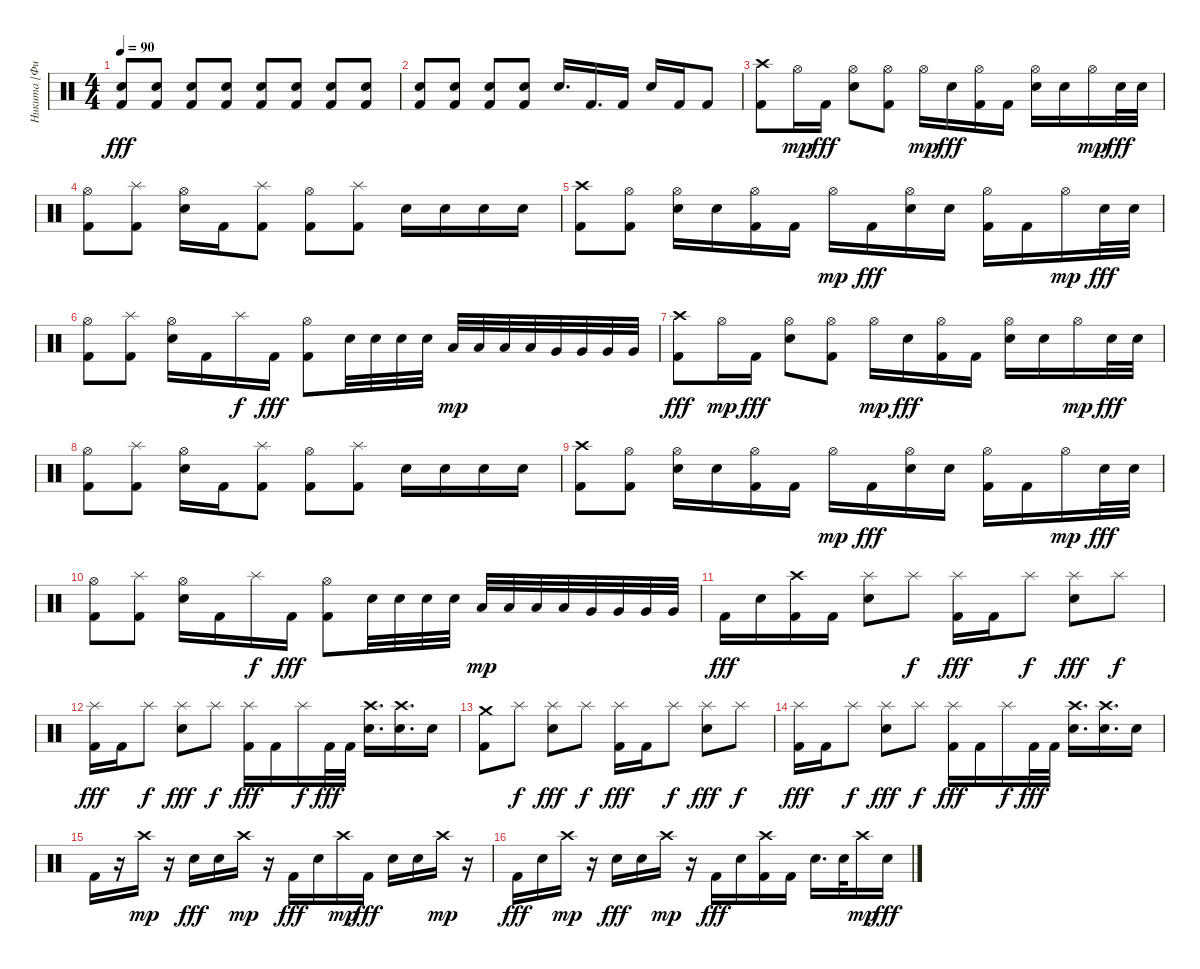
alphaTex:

\track ("Никита [Фил]" "Никита [Фи") {instrument percussion}
\staff {score}
\articulation defaults
\ts (4 4)
\tempo 90
\clef neutral
\ks c
("Electric Snare (hit)" "Kick (hit) 2").8{dy fff} ("Electric Snare (hit)" "Kick (hit) 2").8 ("Electric Snare (hit)" "Kick (hit) 2").8 ("Electric Snare (hit)" "Kick (hit) 2").8 ("Electric Snare (hit)" "Kick (hit) 2").8 ("Electric Snare (hit)" "Kick (hit) 2").8 ("Electric Snare (hit)" "Kick (hit) 2").8 ("Electric Snare (hit)" "Kick (hit) 2").8 |
("Electric Snare (hit)" "Kick (hit) 2").8 ("Electric Snare (hit)" "Kick (hit) 2").8 ("Electric Snare (hit)" "Kick (hit) 2").8 ("Electric Snare (hit)" "Kick (hit) 2").8 "Electric Snare (hit)".16{d} "Kick (hit) 2".16{d} "Kick (hit) 2".16 "Electric Snare (hit)".16 "Kick (hit) 2".16 "Kick (hit) 2".8 |
("Crash high (hit)" "Kick (hit) 2").8 "Hi-Hat (open)".16{dy mp} "Kick (hit) 2".16{dy fff} ("Hi-Hat (open)" "Electric Snare (hit)").8 ("Hi-Hat (open)" "Kick (hit) 2").8 "Hi-Hat (open)".16{dy mp} "Electric Snare (hit)".16{dy fff} ("Hi-Hat (open)" "Kick (hit) 2").16 "Kick (hit) 2".16 ("Hi-Hat (open)" "Electric Snare (hit)").16 "Electric Snare (hit)".16 "Hi-Hat (open)".16{dy mp} "Electric Snare (hit)".32{dy fff} "Electric Snare (hit)".32 |
("Hi-Hat (open)" "Kick (hit) 2").8 ("Splash (hit)" "Kick (hit) 2").8 ("Hi-Hat (open)" "Electric Snare (hit)").16 "Kick (hit) 2".16 ("Splash (hit)" "Kick (hit) 2").8 ("Hi-Hat (open)" "Kick (hit) 2").8 ("Splash (hit)" "Kick (hit) 2").8 "Electric Snare (hit)".16 "Electric Snare (hit)".16 "Electric Snare (hit)".16 "Electric Snare (hit)".16 |
("Crash high (hit)" "Kick (hit) 2").8 ("Hi-Hat (open)" "Kick (hit) 2").8 ("Hi-Hat (open)" "Electric Snare (hit)").16 "Electric Snare (hit)".16 ("Hi-Hat (open)" "Kick (hit) 2").16 "Kick (hit) 2".16 "Hi-Hat (open)".16{dy mp} "Kick (hit) 2".16{dy fff} ("Hi-Hat (open)" "Electric Snare (hit)").16 "Electric Snare (hit)".16 ("Hi-Hat (open)" "Kick (hit) 2").16 "Kick (hit) 2".16 "Hi-Hat (open)".16{dy mp} "Electric Snare (hit)".32{dy fff} "Electric Snare (hit)".32 |
("Hi-Hat (open)" "Kick (hit) 2").8 ("Splash (hit)" "Kick (hit) 2").8 ("Hi-Hat (open)" "Electric Snare (hit)").16 "Kick (hit) 2".16 "Splash (hit)".16{dy f} "Kick (hit) 2".16{dy fff} ("Hi-Hat (open)" "Kick (hit) 2").8 "Electric Snare (hit)".32 "Electric Snare (hit)".32 "Electric Snare (hit)".32 "Electric Snare (hit)".32 "Low Tom (hit)".32{dy mp} "Low Tom (hit)".32 "Low Tom (hit)".32 "Low Tom (hit)".32 "Very Low Tom (hit)".32 "Very Low Tom (hit)".32 "Very Low Tom (hit)".32 "Very Low Tom (hit)".32 |
("Crash high (hit)" "Kick (hit) 2").8{dy fff} "Hi-Hat (open)".16{dy mp} "Kick (hit) 2".16{dy fff} ("Hi-Hat (open)" "Electric Snare (hit)").8 ("Hi-Hat (open)" "Kick (hit) 2").8 "Hi-Hat (open)".16{dy mp} "Electric Snare (hit)".16{dy fff} ("Hi-Hat (open)" "Kick (hit) 2").16 "Kick (hit) 2".16 ("Hi-Hat (open)" "Electric Snare (hit)").16 "Electric Snare (hit)".16 "Hi-Hat (open)".16{dy mp} "Electric Snare (hit)".32{dy fff} "Electric Snare (hit)".32 |
("Hi-Hat (open)" "Kick (hit) 2").8 ("Splash (hit)" "Kick (hit) 2").8 ("Hi-Hat (open)" "Electric Snare (hit)").16 "Kick (hit) 2".16 ("Splash (hit)" "Kick (hit) 2").8 ("Hi-Hat (open)" "Kick (hit) 2").8 ("Splash (hit)" "Kick (hit) 2").8 "Electric Snare (hit)".16 "Electric Snare (hit)".16 "Electric Snare (hit)".16 "Electric Snare (hit)".16 |
("Crash high (hit)" "Kick (hit) 2").8 ("Hi-Hat (open)" "Kick (hit) 2").8 ("Hi-Hat (open)" "Electric Snare (hit)").16 "Electric Snare (hit)".16 ("Hi-Hat (open)" "Kick (hit) 2").16 "Kick (hit) 2".16 "Hi-Hat (open)".16{dy mp} "Kick (hit) 2".16{dy fff} ("Hi-Hat (open)" "Electric Snare (hit)").16 "Electric Snare (hit)".16 ("Hi-Hat (open)" "Kick (hit) 2").16 "Kick (hit) 2".16 "Hi-Hat (open)".16{dy mp} "Electric Snare (hit)".32{dy fff} "Electric Snare (hit)".32 |
("Hi-Hat (open)" "Kick (hit) 2").8 ("Splash (hit)" "Kick (hit) 2").8 ("Hi-Hat (open)" "Electric Snare (hit)").16 "Kick (hit) 2".16 "Splash (hit)".16{dy f} "Kick (hit) 2".16{dy fff} ("Hi-Hat (open)" "Kick (hit) 2").8 "Electric Snare (hit)".32 "Electric Snare (hit)".32 "Electric Snare (hit)".32 "Electric Snare (hit)".32 "Low Tom (hit)".32{dy mp} "Low Tom (hit)".32 "Low Tom (hit)".32 "Low Tom (hit)".32 "Very Low Tom (hit)".32 "Very Low Tom (hit)".32 "Very Low Tom (hit)".32 "Very Low Tom (hit)".32 |
"Kick (hit) 2".16{dy fff} "Electric Snare (hit)".16 ("Crash high (hit)" "Kick (hit) 2").16 "Kick (hit) 2".16 ("Splash (hit)" "Electric Snare (hit)").8 "Splash (hit)".8{dy f} ("Splash (hit)" "Kick (hit) 2").16{dy fff} "Kick (hit) 2".16 "Splash (hit)".8{dy f} ("Splash (hit)" "Electric Snare (hit)").8{dy fff} "Splash (hit)".8{dy f} |
("Splash (hit)" "Kick (hit) 2").16{dy fff} "Kick (hit) 2".16 "Splash (hit)".8{dy f} ("Splash (hit)" "Electric Snare (hit)").8{dy fff} "Splash (hit)".8{dy f} ("Splash (hit)" "Kick (hit) 2").16{dy fff} "Kick (hit) 2".16 "Splash (hit)".16{dy f} "Kick (hit) 2".32{dy fff} "Kick (hit) 2".32 ("Crash high (hit)" "Electric Snare (hit)").16{d} ("Crash high (hit)" "Electric Snare (hit)").16{d} "Electric Snare (hit)".16 |
("Crash medium (hit)" "Kick (hit) 2").8 "Splash (hit)".8{dy f} ("Splash (hit)" "Electric Snare (hit)").8{dy fff} "Splash (hit)".8{dy f} ("Splash (hit)" "Kick (hit) 2").16{dy fff} "Kick (hit) 2".16 "Splash (hit)".8{dy f} ("Splash (hit)" "Electric Snare (hit)").8{dy fff} "Splash (hit)".8{dy f} |
("Splash (hit)" "Kick (hit) 2").16{dy fff} "Kick (hit) 2".16 "Splash (hit)".8{dy f} ("Splash (hit)" "Electric Snare (hit)").8{dy fff} "Splash (hit)".8{dy f} ("Splash (hit)" "Kick (hit) 2").16{dy fff} "Kick (hit) 2".16 "Splash (hit)".16{dy f} "Kick (hit) 2".32{dy fff} "Kick (hit) 2".32 ("Crash high (hit)" "Electric Snare (hit)").16{d} ("Crash high (hit)" "Electric Snare (hit)").16{d} "Electric Snare (hit)".16 |
"Kick (hit) 2".16 r.16 "Crash high (hit)".16{dy mp} r.16 "Electric Snare (hit)".16{dy fff} "Electric Snare (hit)".16 "Crash high (hit)".16{dy mp} r.16 "Kick (hit) 2".16{dy fff} "Electric Snare (hit)".16 "Crash high (hit)".16{dy mp} "Kick (hit) 2".16{dy fff} "Electric Snare (hit)".16 "Electric Snare (hit)".16 "Crash high (hit)".16{dy mp} r.16 |
"Kick (hit) 2".16{dy fff} "Electric Snare (hit)".16 "Crash high (hit)".16{dy mp} r.16 "Electric Snare (hit)".16{dy fff} "Electric Snare (hit)".16 "Crash high (hit)".16{dy mp} r.16 "Kick (hit) 2".16{dy fff} "Electric Snare (hit)".16 ("Crash high (hit)" "Kick (hit) 2").16 "Kick (hit) 2".16 "Electric Snare (hit)".16{d} "Electric Snare (hit)".32 "Crash high (hit)".16{dy mp} "Electric Snare (hit)".16{dy fff}
